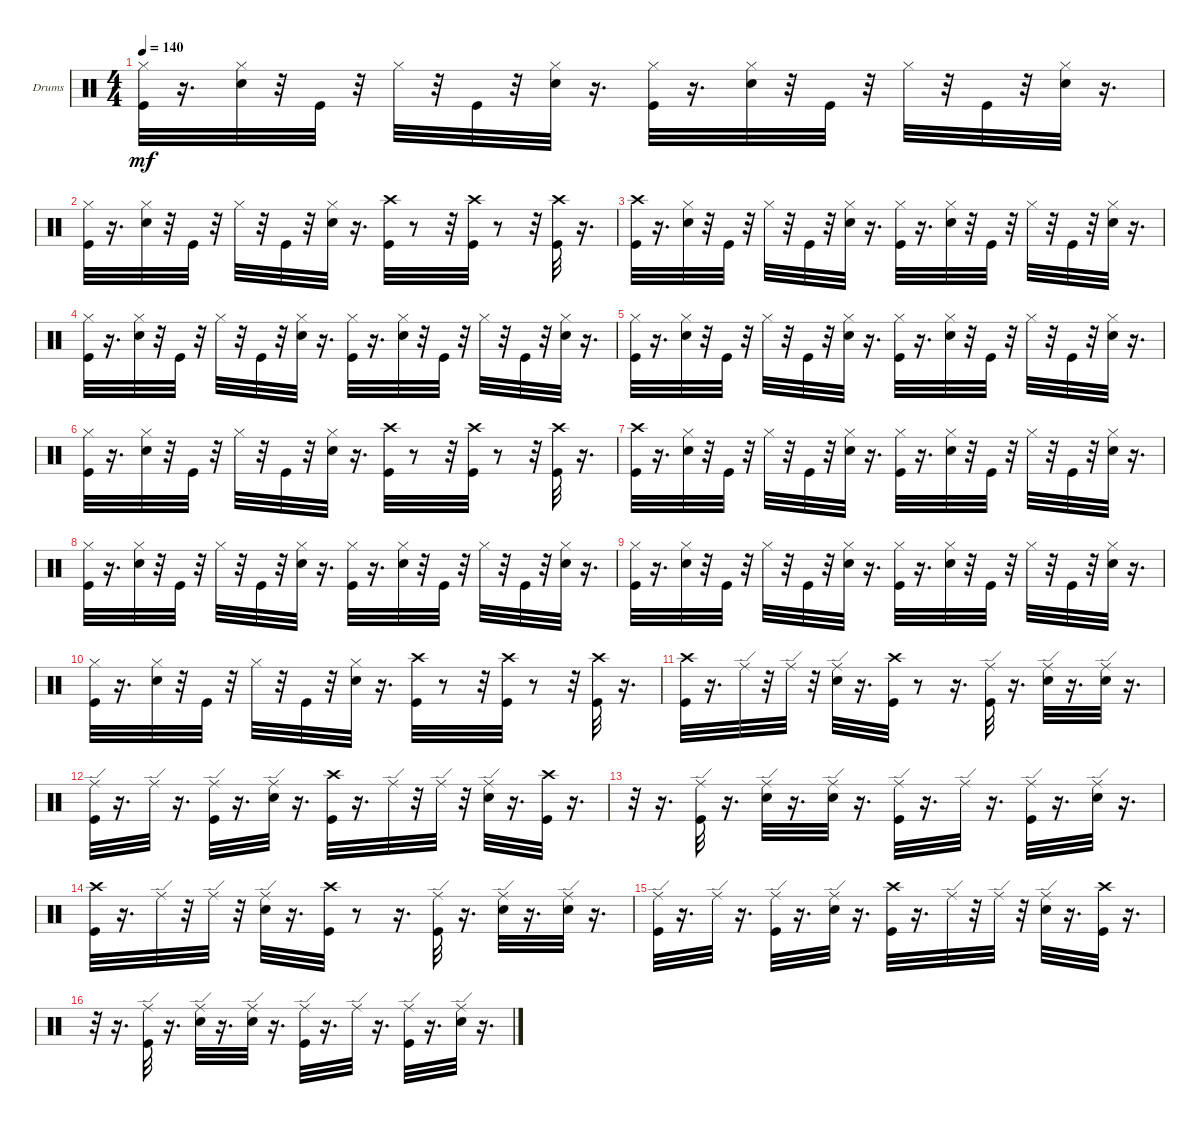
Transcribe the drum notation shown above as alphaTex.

\bracketExtendMode groupsimilarinstruments
\firstSystemTrackNameOrientation horizontal
\otherSystemsTrackNameOrientation horizontal
\track ("" "Drums") {instrument percussion}
\staff {score}
\articulation defaults
\ts (4 4)
\tempo 140
\clef neutral
\ks c
("Hi-Hat (closed)" "Kick (hit)").32{dy mf} r.16{d} ("Snare (hit) 2" "Hi-Hat (closed)").32 r.32 "Kick (hit)".32 r.32 "Hi-Hat (closed)".32 r.32 "Kick (hit)".32 r.32 ("Snare (hit) 2" "Hi-Hat (closed)").32 r.16{d} ("Kick (hit)" "Hi-Hat (closed)").32 r.16{d} ("Snare (hit) 2" "Hi-Hat (closed)").32 r.32 "Kick (hit)".32 r.32 "Hi-Hat (closed)".32 r.32 "Kick (hit)".32 r.32 ("Snare (hit) 2" "Hi-Hat (closed)").32 r.16{d} |
("Hi-Hat (closed)" "Kick (hit)").32 r.16{d} ("Snare (hit) 2" "Hi-Hat (closed)").32 r.32 "Kick (hit)".32 r.32 "Hi-Hat (closed)".32 r.32 "Kick (hit)".32 r.32 ("Snare (hit) 2" "Hi-Hat (closed)").32 r.16{d} ("Crash high (hit)" "Kick (hit)").32 r.8 r.32 ("Crash high (hit)" "Kick (hit)").32 r.8 r.32 ("Crash high (hit)" "Kick (hit)").32 r.16{d} |
("Crash high (hit)" "Kick (hit)").32 r.16{d} ("Snare (hit) 2" "Hi-Hat (closed)").32 r.32 "Kick (hit)".32 r.32 "Hi-Hat (closed)".32 r.32 "Kick (hit)".32 r.32 ("Snare (hit) 2" "Hi-Hat (closed)").32 r.16{d} ("Kick (hit)" "Hi-Hat (closed)").32 r.16{d} ("Snare (hit) 2" "Hi-Hat (closed)").32 r.32 "Kick (hit)".32 r.32 "Hi-Hat (closed)".32 r.32 "Kick (hit)".32 r.32 ("Snare (hit) 2" "Hi-Hat (closed)").32 r.16{d} |
("Hi-Hat (closed)" "Kick (hit)").32 r.16{d} ("Snare (hit) 2" "Hi-Hat (closed)").32 r.32 "Kick (hit)".32 r.32 "Hi-Hat (closed)".32 r.32 "Kick (hit)".32 r.32 ("Snare (hit) 2" "Hi-Hat (closed)").32 r.16{d} ("Kick (hit)" "Hi-Hat (closed)").32 r.16{d} ("Snare (hit) 2" "Hi-Hat (closed)").32 r.32 "Kick (hit)".32 r.32 "Hi-Hat (closed)".32 r.32 "Kick (hit)".32 r.32 ("Snare (hit) 2" "Hi-Hat (closed)").32 r.16{d} |
("Hi-Hat (closed)" "Kick (hit)").32 r.16{d} ("Snare (hit) 2" "Hi-Hat (closed)").32 r.32 "Kick (hit)".32 r.32 "Hi-Hat (closed)".32 r.32 "Kick (hit)".32 r.32 ("Snare (hit) 2" "Hi-Hat (closed)").32 r.16{d} ("Kick (hit)" "Hi-Hat (closed)").32 r.16{d} ("Snare (hit) 2" "Hi-Hat (closed)").32 r.32 "Kick (hit)".32 r.32 "Hi-Hat (closed)".32 r.32 "Kick (hit)".32 r.32 ("Snare (hit) 2" "Hi-Hat (closed)").32 r.16{d} |
("Hi-Hat (closed)" "Kick (hit)").32 r.16{d} ("Snare (hit) 2" "Hi-Hat (closed)").32 r.32 "Kick (hit)".32 r.32 "Hi-Hat (closed)".32 r.32 "Kick (hit)".32 r.32 ("Snare (hit) 2" "Hi-Hat (closed)").32 r.16{d} ("Crash high (hit)" "Kick (hit)").32 r.8 r.32 ("Crash high (hit)" "Kick (hit)").32 r.8 r.32 ("Crash high (hit)" "Kick (hit)").32 r.16{d} |
("Crash high (hit)" "Kick (hit)").32 r.16{d} ("Snare (hit) 2" "Hi-Hat (closed)").32 r.32 "Kick (hit)".32 r.32 "Hi-Hat (closed)".32 r.32 "Kick (hit)".32 r.32 ("Snare (hit) 2" "Hi-Hat (closed)").32 r.16{d} ("Kick (hit)" "Hi-Hat (closed)").32 r.16{d} ("Snare (hit) 2" "Hi-Hat (closed)").32 r.32 "Kick (hit)".32 r.32 "Hi-Hat (closed)".32 r.32 "Kick (hit)".32 r.32 ("Snare (hit) 2" "Hi-Hat (closed)").32 r.16{d} |
("Hi-Hat (closed)" "Kick (hit)").32 r.16{d} ("Snare (hit) 2" "Hi-Hat (closed)").32 r.32 "Kick (hit)".32 r.32 "Hi-Hat (closed)".32 r.32 "Kick (hit)".32 r.32 ("Snare (hit) 2" "Hi-Hat (closed)").32 r.16{d} ("Kick (hit)" "Hi-Hat (closed)").32 r.16{d} ("Snare (hit) 2" "Hi-Hat (closed)").32 r.32 "Kick (hit)".32 r.32 "Hi-Hat (closed)".32 r.32 "Kick (hit)".32 r.32 ("Snare (hit) 2" "Hi-Hat (closed)").32 r.16{d} |
("Hi-Hat (closed)" "Kick (hit)").32 r.16{d} ("Snare (hit) 2" "Hi-Hat (closed)").32 r.32 "Kick (hit)".32 r.32 "Hi-Hat (closed)".32 r.32 "Kick (hit)".32 r.32 ("Snare (hit) 2" "Hi-Hat (closed)").32 r.16{d} ("Kick (hit)" "Hi-Hat (closed)").32 r.16{d} ("Snare (hit) 2" "Hi-Hat (closed)").32 r.32 "Kick (hit)".32 r.32 "Hi-Hat (closed)".32 r.32 "Kick (hit)".32 r.32 ("Snare (hit) 2" "Hi-Hat (closed)").32 r.16{d} |
("Hi-Hat (closed)" "Kick (hit)").32 r.16{d} ("Snare (hit) 2" "Hi-Hat (closed)").32 r.32 "Kick (hit)".32 r.32 "Hi-Hat (closed)".32 r.32 "Kick (hit)".32 r.32 ("Snare (hit) 2" "Hi-Hat (closed)").32 r.16{d} ("Crash high (hit)" "Kick (hit)").32 r.8 r.32 ("Crash high (hit)" "Kick (hit)").32 r.8 r.32 ("Crash high (hit)" "Kick (hit)").32 r.16{d} |
("Crash high (hit)" "Kick (hit)").32 r.16{d} "Ride (edge)".32 r.32 "Ride (edge)".32 r.32 ("Ride (edge)" "Snare (hit) 2").32 r.16{d} ("Crash high (hit)" "Kick (hit)").32 r.8 r.16{d} ("Ride (edge)" "Kick (hit)").32 r.16{d} ("Ride (edge)" "Snare (hit) 2").32 r.16{d} ("Ride (edge)" "Snare (hit) 2").32 r.16{d} |
("Ride (edge)" "Kick (hit)").32 r.16{d} "Ride (edge)".32 r.16{d} ("Ride (edge)" "Kick (hit)").32 r.16{d} ("Ride (edge)" "Snare (hit) 2").32 r.16{d} ("Crash high (hit)" "Kick (hit)").32 r.16{d} "Ride (edge)".32 r.32 "Ride (edge)".32 r.32 ("Ride (edge)" "Snare (hit) 2").32 r.16{d} ("Crash high (hit)" "Kick (hit)").32 r.16{d} |
r.32 r.16{d} ("Ride (edge)" "Kick (hit)").32 r.16{d} ("Ride (edge)" "Snare (hit) 2").32 r.16{d} ("Ride (edge)" "Snare (hit) 2").32 r.16{d} ("Ride (edge)" "Kick (hit)").32 r.16{d} "Ride (edge)".32 r.16{d} ("Ride (edge)" "Kick (hit)").32 r.16{d} ("Ride (edge)" "Snare (hit) 2").32 r.16{d} |
("Crash high (hit)" "Kick (hit)").32 r.16{d} "Ride (edge)".32 r.32 "Ride (edge)".32 r.32 ("Ride (edge)" "Snare (hit) 2").32 r.16{d} ("Crash high (hit)" "Kick (hit)").32 r.8 r.16{d} ("Ride (edge)" "Kick (hit)").32 r.16{d} ("Ride (edge)" "Snare (hit) 2").32 r.16{d} ("Ride (edge)" "Snare (hit) 2").32 r.16{d} |
("Ride (edge)" "Kick (hit)").32 r.16{d} "Ride (edge)".32 r.16{d} ("Ride (edge)" "Kick (hit)").32 r.16{d} ("Ride (edge)" "Snare (hit) 2").32 r.16{d} ("Crash high (hit)" "Kick (hit)").32 r.16{d} "Ride (edge)".32 r.32 "Ride (edge)".32 r.32 ("Ride (edge)" "Snare (hit) 2").32 r.16{d} ("Crash high (hit)" "Kick (hit)").32 r.16{d} |
r.32 r.16{d} ("Ride (edge)" "Kick (hit)").32 r.16{d} ("Ride (edge)" "Snare (hit) 2").32 r.16{d} ("Ride (edge)" "Snare (hit) 2").32 r.16{d} ("Ride (edge)" "Kick (hit)").32 r.16{d} "Ride (edge)".32 r.16{d} ("Ride (edge)" "Kick (hit)").32 r.16{d} ("Ride (edge)" "Snare (hit) 2").32 r.16{d}
